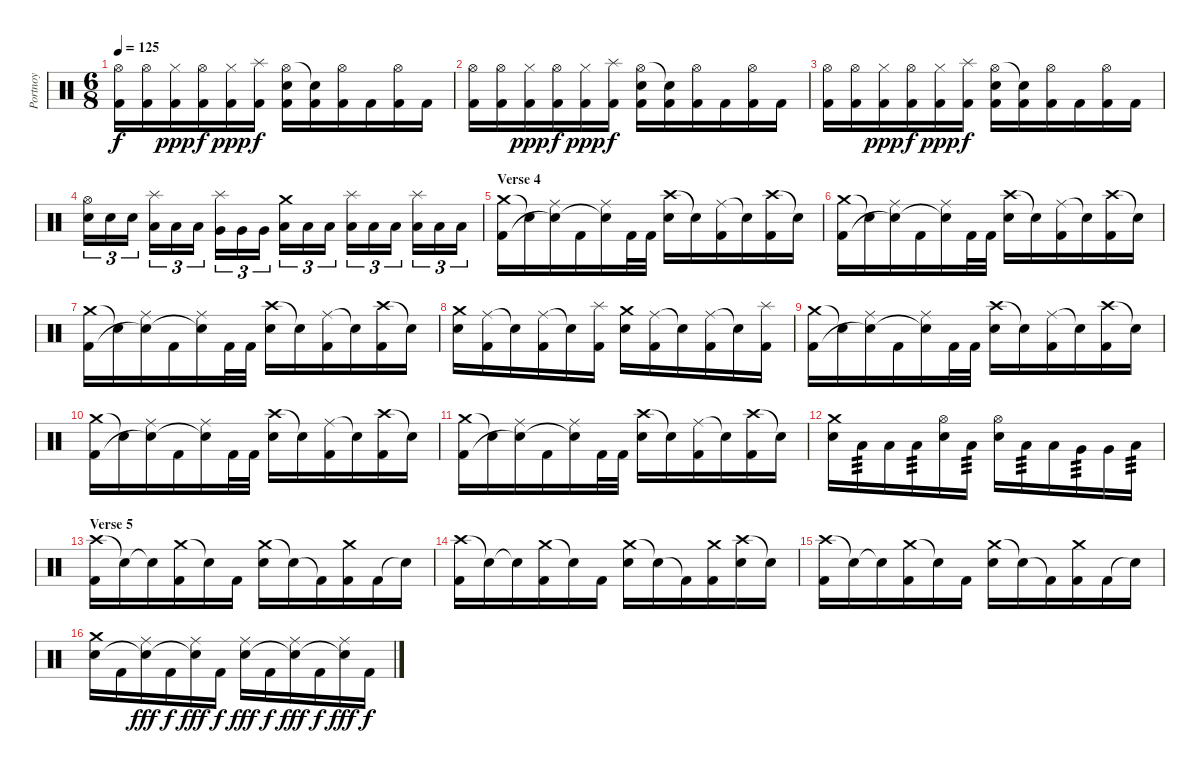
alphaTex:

\track ("Portnoy" "Portnoy") {instrument percussion}
\staff {score}
\articulation defaults
\ts (6 8)
\tempo 125
\clef neutral
\ks c
("Hi-Hat (open)" "Kick (hit) 2").16{dy f} ("Hi-Hat (open)" "Kick (hit) 2").16 ("Hi-Hat (closed)" "Kick (hit) 2").16{dy ppp} ("Hi-Hat (open)" "Kick (hit) 2").16{dy f} ("Hi-Hat (closed)" "Kick (hit) 2").16{dy ppp} ("Splash (hit)" "Kick (hit) 2").16{dy f} ("Hi-Hat (open)" "Snare (hit) 2" "Kick (hit) 2").16 ("Snare (hit)"{t} "Kick (hit) 2").16 ("Hi-Hat (open)" "Kick (hit) 2").16 "Kick (hit) 2".16 ("Hi-Hat (open)" "Kick (hit) 2").16 "Kick (hit) 2".16 |
("Hi-Hat (open)" "Kick (hit) 2").16 ("Hi-Hat (open)" "Kick (hit) 2").16 ("Hi-Hat (closed)" "Kick (hit) 2").16{dy ppp} ("Hi-Hat (open)" "Kick (hit) 2").16{dy f} ("Hi-Hat (closed)" "Kick (hit) 2").16{dy ppp} ("Splash (hit)" "Kick (hit) 2").16{dy f} ("Hi-Hat (open)" "Snare (hit) 2" "Kick (hit) 2").16 ("Snare (hit)"{t} "Kick (hit) 2").16 ("Hi-Hat (open)" "Kick (hit) 2").16 "Kick (hit) 2".16 ("Hi-Hat (open)" "Kick (hit) 2").16 "Kick (hit) 2".16 |
("Hi-Hat (open)" "Kick (hit) 2").16 ("Hi-Hat (open)" "Kick (hit) 2").16 ("Hi-Hat (closed)" "Kick (hit) 2").16{dy ppp} ("Hi-Hat (open)" "Kick (hit) 2").16{dy f} ("Hi-Hat (closed)" "Kick (hit) 2").16{dy ppp} ("Splash (hit)" "Kick (hit) 2").16{dy f} ("Hi-Hat (open)" "Snare (hit) 2" "Kick (hit) 2").16 ("Snare (hit)"{t} "Kick (hit) 2").16 ("Hi-Hat (open)" "Kick (hit) 2").16 "Kick (hit) 2".16 ("Hi-Hat (open)" "Kick (hit) 2").16 "Kick (hit) 2".16 |
("Hi-Hat (open)" "Snare (hit) 2").16{tu (3 2)} "Snare (hit) 2".16{tu (3 2)} "Snare (hit) 2".16{tu (3 2)} ("Splash (hit)" "Low Tom (hit)").16{tu (3 2)} "Low Tom (hit)".16{tu (3 2)} "Low Tom (hit)".16{tu (3 2)} ("Splash (hit)" "Very Low Tom (hit)").16{tu (3 2)} "Very Low Tom (hit)".16{tu (3 2)} "Very Low Tom (hit)".16{tu (3 2)} ("Crash medium (hit)" "Low Floor Tom (hit)").16{tu (3 2)} "Low Floor Tom (hit)".16{tu (3 2)} "Low Floor Tom (hit)".16{tu (3 2)} ("Splash (hit)" "Low Tom (hit)").16{tu (3 2)} "Low Tom (hit)".16{tu (3 2)} "Low Tom (hit)".16{tu (3 2)} ("Splash (hit)" "Low Floor Tom (hit)").16{tu (3 2)} "Low Floor Tom (hit)".16{tu (3 2)} "Low Floor Tom (hit)".16{tu (3 2)} |
\section ("" "Verse 4")
("Crash medium (hit)" "Kick (hit) 2").16 "Snare (hit)"{t}.16 ("Ride (middle)" "Snare (hit)"{t}).16 "Kick (hit) 2".16 ("Ride (middle)" "Snare (hit)"{t}).16 "Kick (hit) 2".32 "Kick (hit) 2".32 ("Crash high (hit)" "Snare (hit) 2").16 "Snare (hit)"{t}.16 ("Ride (middle)" "Kick (hit) 2").16 "Snare (hit)"{t}.16 ("Crash high (hit)" "Kick (hit) 2").16 "Snare (hit)"{t}.16 |
("Crash medium (hit)" "Kick (hit) 2").16 "Snare (hit)"{t}.16 ("Ride (middle)" "Snare (hit)"{t}).16 "Kick (hit) 2".16 ("Ride (middle)" "Snare (hit)"{t}).16 "Kick (hit) 2".32 "Kick (hit) 2".32 ("Crash high (hit)" "Snare (hit) 2").16 "Snare (hit)"{t}.16 ("Ride (middle)" "Kick (hit) 2").16 "Snare (hit)"{t}.16 ("Crash high (hit)" "Kick (hit) 2").16 "Snare (hit)"{t}.16 |
("Crash medium (hit)" "Kick (hit) 2").16 "Snare (hit)"{t}.16 ("Ride (middle)" "Snare (hit)"{t}).16 "Kick (hit) 2".16 ("Ride (middle)" "Snare (hit)"{t}).16 "Kick (hit) 2".32 "Kick (hit) 2".32 ("Crash high (hit)" "Snare (hit) 2").16 "Snare (hit)"{t}.16 ("Ride (middle)" "Kick (hit) 2").16 "Snare (hit)"{t}.16 ("Crash high (hit)" "Kick (hit) 2").16 "Snare (hit)"{t}.16 |
("Crash medium (hit)" "Snare (hit) 2").16 ("Ride (middle)" "Kick (hit) 2").16 "Snare (hit)"{t}.16 ("Ride (middle)" "Kick (hit) 2").16 "Snare (hit)"{t}.16 ("Splash (hit)" "Kick (hit) 2").16 ("Crash medium (hit)" "Snare (hit) 2").16 ("Ride (middle)" "Kick (hit) 2").16 "Snare (hit)"{t}.16 ("Ride (middle)" "Kick (hit) 2").16 "Snare (hit)"{t}.16 ("Splash (hit)" "Kick (hit) 2").16 |
("Crash medium (hit)" "Kick (hit) 2").16 "Snare (hit)"{t}.16 ("Ride (middle)" "Snare (hit)"{t}).16 "Kick (hit) 2".16 ("Ride (middle)" "Snare (hit)"{t}).16 "Kick (hit) 2".32 "Kick (hit) 2".32 ("Crash high (hit)" "Snare (hit) 2").16 "Snare (hit)"{t}.16 ("Ride (middle)" "Kick (hit) 2").16 "Snare (hit)"{t}.16 ("Crash high (hit)" "Kick (hit) 2").16 "Snare (hit)"{t}.16 |
("Crash medium (hit)" "Kick (hit) 2").16 "Snare (hit)"{t}.16 ("Ride (middle)" "Snare (hit)"{t}).16 "Kick (hit) 2".16 ("Ride (middle)" "Snare (hit)"{t}).16 "Kick (hit) 2".32 "Kick (hit) 2".32 ("Crash high (hit)" "Snare (hit) 2").16 "Snare (hit)"{t}.16 ("Ride (middle)" "Kick (hit) 2").16 "Snare (hit)"{t}.16 ("Crash high (hit)" "Kick (hit) 2").16 "Snare (hit)"{t}.16 |
("Crash medium (hit)" "Kick (hit) 2").16 "Snare (hit)"{t}.16 ("Ride (middle)" "Snare (hit)"{t}).16 "Kick (hit) 2".16 ("Ride (middle)" "Snare (hit)"{t}).16 "Kick (hit) 2".32 "Kick (hit) 2".32 ("Crash high (hit)" "Snare (hit) 2").16 "Snare (hit)"{t}.16 ("Ride (middle)" "Kick (hit) 2").16 "Snare (hit)"{t}.16 ("Crash high (hit)" "Kick (hit) 2").16 "Snare (hit)"{t}.16 |
("Crash medium (hit)" "Snare (hit) 2").16 "Low Tom (hit)".16{tp 3} "Low Tom (hit)".16 "Low Tom (hit)".16{tp 3} ("Hi-Hat (open)" "Snare (hit) 2").16 "Low Tom (hit)".16{tp 3} ("Hi-Hat (open)" "Snare (hit) 2").16 "Low Tom (hit)".16{tp 3} "Low Tom (hit)".16 "Very Low Tom (hit)".16{tp 3} "Very Low Tom (hit)".16 "Low Floor Tom (hit)".16{tp 3} |
\section ("" "Verse 5")
("Crash high (hit)" "Kick (hit) 2").16 "Snare (hit)"{t}.16 "Snare (hit)"{t}.16 ("Crash medium (hit)" "Kick (hit) 2").16 "Snare (hit)"{t}.16 "Kick (hit) 2".16 ("Crash medium (hit)" "Snare (hit) 2").16 "Snare (hit)"{t}.16 "Kick (hit) 2"{t}.16 ("Crash medium (hit)" "Kick (hit) 2").16 "Kick (hit) 2".16 "Snare (hit)"{t}.16 |
("Crash high (hit)" "Kick (hit) 2").16 "Snare (hit)"{t}.16 "Snare (hit)"{t}.16 ("Crash medium (hit)" "Kick (hit) 2").16 "Snare (hit)"{t}.16 "Kick (hit) 2".16 ("Crash medium (hit)" "Snare (hit) 2").16 "Snare (hit)"{t}.16 "Kick (hit) 2"{t}.16 ("Crash medium (hit)" "Kick (hit) 2").16 ("Crash high (hit)" "Snare (hit) 2").16 "Snare (hit)"{t}.16 |
("Crash high (hit)" "Kick (hit) 2").16 "Snare (hit)"{t}.16 "Snare (hit)"{t}.16 ("Crash medium (hit)" "Kick (hit) 2").16 "Snare (hit)"{t}.16 "Kick (hit) 2".16 ("Crash medium (hit)" "Snare (hit) 2").16 "Snare (hit)"{t}.16 "Kick (hit) 2"{t}.16 ("Crash medium (hit)" "Kick (hit) 2").16 "Kick (hit) 2".16 "Snare (hit)"{t}.16 |
("Crash medium (hit)" "Snare (hit) 2").16 "Kick (hit) 2".16 ("Ride (middle)" "Snare (hit)"{t}).16{dy fff} "Kick (hit) 2".16{dy f} ("Ride (middle)" "Snare (hit)"{t}).16{dy fff} "Kick (hit) 2".16{dy f} ("Ride (middle)" "Snare (hit) 2").16{dy fff} "Kick (hit) 2".16{dy f} ("Ride (middle)" "Snare (hit)"{t}).16{dy fff} "Kick (hit) 2".16{dy f} ("Ride (middle)" "Snare (hit)"{t}).16{dy fff} "Kick (hit) 2".16{dy f}
